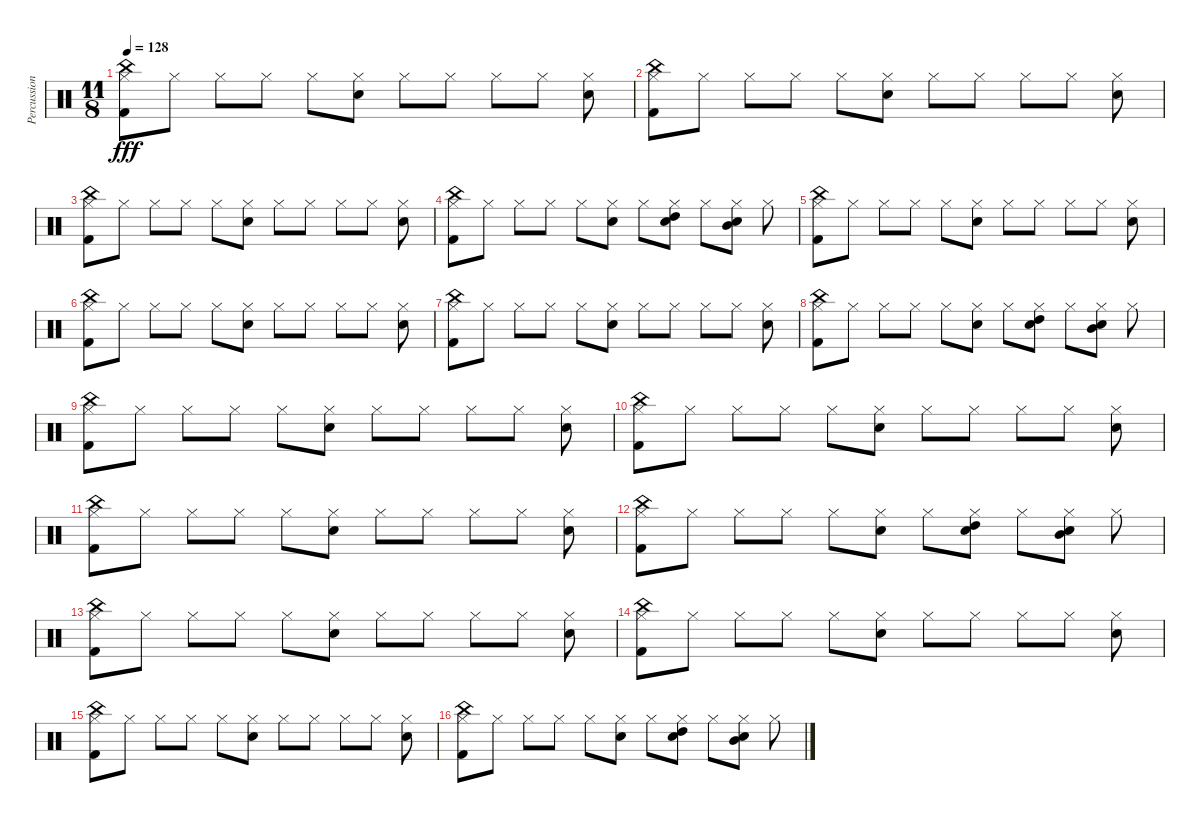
\track ("Percussions" "Percussion") {instrument percussion}
\staff {score}
\articulation defaults
\ts (11 8)
\tempo 128
\clef neutral
\ks c
("Hi-Hat (closed)" "China (hit)" "Kick (hit) 2").8{dy fff} "Hi-Hat (closed)".8 "Hi-Hat (closed)".8 "Hi-Hat (closed)".8 "Hi-Hat (closed)".8 ("Hi-Hat (closed)" "Electric Snare (hit)").8 "Hi-Hat (closed)".8 "Hi-Hat (closed)".8 "Hi-Hat (closed)".8 "Hi-Hat (closed)".8 ("Hi-Hat (closed)" "Electric Snare (hit)").8 |
("Hi-Hat (closed)" "China (hit)" "Kick (hit) 2").8 "Hi-Hat (closed)".8 "Hi-Hat (closed)".8 "Hi-Hat (closed)".8 "Hi-Hat (closed)".8 ("Hi-Hat (closed)" "Electric Snare (hit)").8 "Hi-Hat (closed)".8 "Hi-Hat (closed)".8 "Hi-Hat (closed)".8 "Hi-Hat (closed)".8 ("Hi-Hat (closed)" "Electric Snare (hit)").8 |
("Hi-Hat (closed)" "China (hit)" "Kick (hit) 2").8 "Hi-Hat (closed)".8 "Hi-Hat (closed)".8 "Hi-Hat (closed)".8 "Hi-Hat (closed)".8 ("Hi-Hat (closed)" "Electric Snare (hit)").8 "Hi-Hat (closed)".8 "Hi-Hat (closed)".8 "Hi-Hat (closed)".8 "Hi-Hat (closed)".8 ("Hi-Hat (closed)" "Electric Snare (hit)").8 |
("Hi-Hat (closed)" "China (hit)" "Kick (hit) 2").8 "Hi-Hat (closed)".8 "Hi-Hat (closed)".8 "Hi-Hat (closed)".8 "Hi-Hat (closed)".8 ("Hi-Hat (closed)" "Electric Snare (hit)").8 "Hi-Hat (closed)".8 ("Hi-Hat (closed)" "High Tom (hit)" "Electric Snare (hit)").8 "Hi-Hat (closed)".8 ("Hi-Hat (closed)" "Mid Tom (hit)" "Electric Snare (hit)").8 "Hi-Hat (closed)".8 |
("Hi-Hat (closed)" "China (hit)" "Kick (hit) 2").8 "Hi-Hat (closed)".8 "Hi-Hat (closed)".8 "Hi-Hat (closed)".8 "Hi-Hat (closed)".8 ("Hi-Hat (closed)" "Electric Snare (hit)").8 "Hi-Hat (closed)".8 "Hi-Hat (closed)".8 "Hi-Hat (closed)".8 "Hi-Hat (closed)".8 ("Hi-Hat (closed)" "Electric Snare (hit)").8 |
("Hi-Hat (closed)" "China (hit)" "Kick (hit) 2").8 "Hi-Hat (closed)".8 "Hi-Hat (closed)".8 "Hi-Hat (closed)".8 "Hi-Hat (closed)".8 ("Hi-Hat (closed)" "Electric Snare (hit)").8 "Hi-Hat (closed)".8 "Hi-Hat (closed)".8 "Hi-Hat (closed)".8 "Hi-Hat (closed)".8 ("Hi-Hat (closed)" "Electric Snare (hit)").8 |
("Hi-Hat (closed)" "China (hit)" "Kick (hit) 2").8 "Hi-Hat (closed)".8 "Hi-Hat (closed)".8 "Hi-Hat (closed)".8 "Hi-Hat (closed)".8 ("Hi-Hat (closed)" "Electric Snare (hit)").8 "Hi-Hat (closed)".8 "Hi-Hat (closed)".8 "Hi-Hat (closed)".8 "Hi-Hat (closed)".8 ("Hi-Hat (closed)" "Electric Snare (hit)").8 |
("Hi-Hat (closed)" "China (hit)" "Kick (hit) 2").8 "Hi-Hat (closed)".8 "Hi-Hat (closed)".8 "Hi-Hat (closed)".8 "Hi-Hat (closed)".8 ("Hi-Hat (closed)" "Electric Snare (hit)").8 "Hi-Hat (closed)".8 ("Hi-Hat (closed)" "High Tom (hit)" "Electric Snare (hit)").8 "Hi-Hat (closed)".8 ("Hi-Hat (closed)" "Mid Tom (hit)" "Electric Snare (hit)").8 "Hi-Hat (closed)".8 |
("Hi-Hat (closed)" "China (hit)" "Kick (hit) 2").8 "Hi-Hat (closed)".8 "Hi-Hat (closed)".8 "Hi-Hat (closed)".8 "Hi-Hat (closed)".8 ("Hi-Hat (closed)" "Electric Snare (hit)").8 "Hi-Hat (closed)".8 "Hi-Hat (closed)".8 "Hi-Hat (closed)".8 "Hi-Hat (closed)".8 ("Hi-Hat (closed)" "Electric Snare (hit)").8 |
("Hi-Hat (closed)" "China (hit)" "Kick (hit) 2").8 "Hi-Hat (closed)".8 "Hi-Hat (closed)".8 "Hi-Hat (closed)".8 "Hi-Hat (closed)".8 ("Hi-Hat (closed)" "Electric Snare (hit)").8 "Hi-Hat (closed)".8 "Hi-Hat (closed)".8 "Hi-Hat (closed)".8 "Hi-Hat (closed)".8 ("Hi-Hat (closed)" "Electric Snare (hit)").8 |
("Hi-Hat (closed)" "China (hit)" "Kick (hit) 2").8 "Hi-Hat (closed)".8 "Hi-Hat (closed)".8 "Hi-Hat (closed)".8 "Hi-Hat (closed)".8 ("Hi-Hat (closed)" "Electric Snare (hit)").8 "Hi-Hat (closed)".8 "Hi-Hat (closed)".8 "Hi-Hat (closed)".8 "Hi-Hat (closed)".8 ("Hi-Hat (closed)" "Electric Snare (hit)").8 |
("Hi-Hat (closed)" "China (hit)" "Kick (hit) 2").8 "Hi-Hat (closed)".8 "Hi-Hat (closed)".8 "Hi-Hat (closed)".8 "Hi-Hat (closed)".8 ("Hi-Hat (closed)" "Electric Snare (hit)").8 "Hi-Hat (closed)".8 ("Hi-Hat (closed)" "High Tom (hit)" "Electric Snare (hit)").8 "Hi-Hat (closed)".8 ("Hi-Hat (closed)" "Mid Tom (hit)" "Electric Snare (hit)").8 "Hi-Hat (closed)".8 |
("Hi-Hat (closed)" "China (hit)" "Kick (hit) 2").8 "Hi-Hat (closed)".8 "Hi-Hat (closed)".8 "Hi-Hat (closed)".8 "Hi-Hat (closed)".8 ("Hi-Hat (closed)" "Electric Snare (hit)").8 "Hi-Hat (closed)".8 "Hi-Hat (closed)".8 "Hi-Hat (closed)".8 "Hi-Hat (closed)".8 ("Hi-Hat (closed)" "Electric Snare (hit)").8 |
("Hi-Hat (closed)" "China (hit)" "Kick (hit) 2").8 "Hi-Hat (closed)".8 "Hi-Hat (closed)".8 "Hi-Hat (closed)".8 "Hi-Hat (closed)".8 ("Hi-Hat (closed)" "Electric Snare (hit)").8 "Hi-Hat (closed)".8 "Hi-Hat (closed)".8 "Hi-Hat (closed)".8 "Hi-Hat (closed)".8 ("Hi-Hat (closed)" "Electric Snare (hit)").8 |
("Hi-Hat (closed)" "China (hit)" "Kick (hit) 2").8 "Hi-Hat (closed)".8 "Hi-Hat (closed)".8 "Hi-Hat (closed)".8 "Hi-Hat (closed)".8 ("Hi-Hat (closed)" "Electric Snare (hit)").8 "Hi-Hat (closed)".8 "Hi-Hat (closed)".8 "Hi-Hat (closed)".8 "Hi-Hat (closed)".8 ("Hi-Hat (closed)" "Electric Snare (hit)").8 |
("Hi-Hat (closed)" "China (hit)" "Kick (hit) 2").8 "Hi-Hat (closed)".8 "Hi-Hat (closed)".8 "Hi-Hat (closed)".8 "Hi-Hat (closed)".8 ("Hi-Hat (closed)" "Electric Snare (hit)").8 "Hi-Hat (closed)".8 ("Hi-Hat (closed)" "High Tom (hit)" "Electric Snare (hit)").8 "Hi-Hat (closed)".8 ("Hi-Hat (closed)" "Mid Tom (hit)" "Electric Snare (hit)").8 "Hi-Hat (closed)".8
